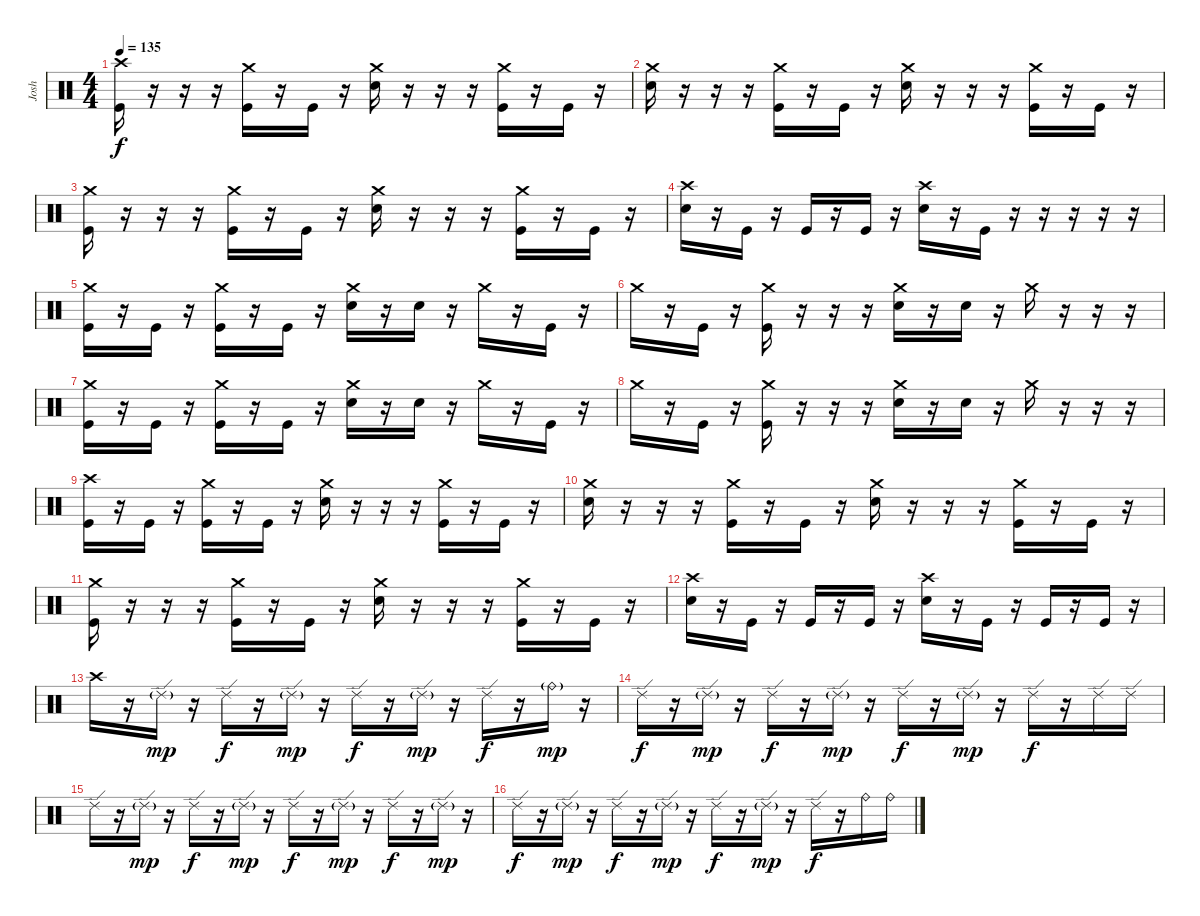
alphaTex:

\track ("Josh" "Josh") {instrument percussion}
\staff {score}
\articulation defaults
\ts (4 4)
\tempo 135
\clef neutral
\ks c
("Crash high (hit)" "Kick (hit)").16{dy f} r.16 r.16 r.16 ("Crash medium (hit)" "Kick (hit)").16 r.16 "Kick (hit)".16 r.16 ("Crash medium (hit)" "Snare (hit) 2").16 r.16 r.16 r.16 ("Crash medium (hit)" "Kick (hit)").16 r.16 "Kick (hit)".16 r.16 |
("Crash medium (hit)" "Snare (hit) 2").16 r.16 r.16 r.16 ("Crash medium (hit)" "Kick (hit)").16 r.16 "Kick (hit)".16 r.16 ("Crash medium (hit)" "Snare (hit) 2").16 r.16 r.16 r.16 ("Crash medium (hit)" "Kick (hit)").16 r.16 "Kick (hit)".16 r.16 |
("Crash medium (hit)" "Kick (hit)").16 r.16 r.16 r.16 ("Crash medium (hit)" "Kick (hit)").16 r.16 "Kick (hit)".16 r.16 ("Crash medium (hit)" "Snare (hit) 2").16 r.16 r.16 r.16 ("Crash medium (hit)" "Kick (hit)").16 r.16 "Kick (hit)".16 r.16 |
("Crash high (hit)" "Snare (hit) 2").16 r.16 "Kick (hit)".16 r.16 "Kick (hit)".16 r.16 "Kick (hit)".16 r.16 ("Crash high (hit)" "Snare (hit) 2").16 r.16 "Kick (hit)".16 r.16 r.16 r.16 r.16 r.16 |
("Crash medium (hit)" "Kick (hit)").16 r.16 "Kick (hit)".16 r.16 ("Crash medium (hit)" "Kick (hit)").16 r.16 "Kick (hit)".16 r.16 ("Crash medium (hit)" "Snare (hit) 2").16 r.16 "Snare (hit) 2".16 r.16 "Crash medium (hit)".16 r.16 "Kick (hit)".16 r.16 |
"Crash medium (hit)".16 r.16 "Kick (hit)".16 r.16 ("Crash medium (hit)" "Kick (hit)").16 r.16 r.16 r.16 ("Crash medium (hit)" "Snare (hit) 2").16 r.16 "Snare (hit) 2".16 r.16 "Crash medium (hit)".16 r.16 r.16 r.16 |
("Crash medium (hit)" "Kick (hit)").16 r.16 "Kick (hit)".16 r.16 ("Crash medium (hit)" "Kick (hit)").16 r.16 "Kick (hit)".16 r.16 ("Crash medium (hit)" "Snare (hit) 2").16 r.16 "Snare (hit) 2".16 r.16 "Crash medium (hit)".16 r.16 "Kick (hit)".16 r.16 |
"Crash medium (hit)".16 r.16 "Kick (hit)".16 r.16 ("Crash medium (hit)" "Kick (hit)").16 r.16 r.16 r.16 ("Crash medium (hit)" "Snare (hit) 2").16 r.16 "Snare (hit) 2".16 r.16 "Crash medium (hit)".16 r.16 r.16 r.16 |
("Crash high (hit)" "Kick (hit)").16 r.16 "Kick (hit)".16 r.16 ("Crash medium (hit)" "Kick (hit)").16 r.16 "Kick (hit)".16 r.16 ("Crash medium (hit)" "Snare (hit) 2").16 r.16 r.16 r.16 ("Crash medium (hit)" "Kick (hit)").16 r.16 "Kick (hit)".16 r.16 |
("Crash medium (hit)" "Snare (hit) 2").16 r.16 r.16 r.16 ("Crash medium (hit)" "Kick (hit)").16 r.16 "Kick (hit)".16 r.16 ("Crash medium (hit)" "Snare (hit) 2").16 r.16 r.16 r.16 ("Crash medium (hit)" "Kick (hit)").16 r.16 "Kick (hit)".16 r.16 |
("Crash medium (hit)" "Kick (hit)").16 r.16 r.16 r.16 ("Crash medium (hit)" "Kick (hit)").16 r.16 "Kick (hit)".16 r.16 ("Crash medium (hit)" "Snare (hit) 2").16 r.16 r.16 r.16 ("Crash medium (hit)" "Kick (hit)").16 r.16 "Kick (hit)".16 r.16 |
("Crash high (hit)" "Snare (hit) 2").16 r.16 "Kick (hit)".16 r.16 "Kick (hit)".16 r.16 "Kick (hit)".16 r.16 ("Crash high (hit)" "Snare (hit) 2").16 r.16 "Kick (hit)".16 r.16 "Kick (hit)".16 r.16 "Kick (hit)".16 r.16 |
"Crash high (hit)".16 r.16 "Ride (edge) 2"{g}.16{dy mp} r.16 "Ride (edge) 2".16{dy f} r.16 "Ride (edge) 2"{g}.16{dy mp} r.16 "Ride (edge) 2".16{dy f} r.16 "Ride (edge) 2"{g}.16{dy mp} r.16 "Ride (edge) 2".16{dy f} r.16 "Ride (bell)"{g}.16{dy mp} r.16 |
"Ride (edge) 2".16{dy f} r.16 "Ride (edge) 2"{g}.16{dy mp} r.16 "Ride (edge) 2".16{dy f} r.16 "Ride (edge) 2"{g}.16{dy mp} r.16 "Ride (edge) 2".16{dy f} r.16 "Ride (edge) 2"{g}.16{dy mp} r.16 "Ride (edge) 2".16{dy f} r.16 "Ride (edge) 2".16 "Ride (edge) 2".16 |
"Ride (edge) 2".16 r.16 "Ride (edge) 2"{g}.16{dy mp} r.16 "Ride (edge) 2".16{dy f} r.16 "Ride (edge) 2"{g}.16{dy mp} r.16 "Ride (edge) 2".16{dy f} r.16 "Ride (edge) 2"{g}.16{dy mp} r.16 "Ride (edge) 2".16{dy f} r.16 "Ride (edge) 2"{g}.16{dy mp} r.16 |
"Ride (edge) 2".16{dy f} r.16 "Ride (edge) 2"{g}.16{dy mp} r.16 "Ride (edge) 2".16{dy f} r.16 "Ride (edge) 2"{g}.16{dy mp} r.16 "Ride (edge) 2".16{dy f} r.16 "Ride (edge) 2"{g}.16{dy mp} r.16 "Ride (edge) 2".16{dy f} r.16 "Ride (bell)".16 "Ride (bell)".16
